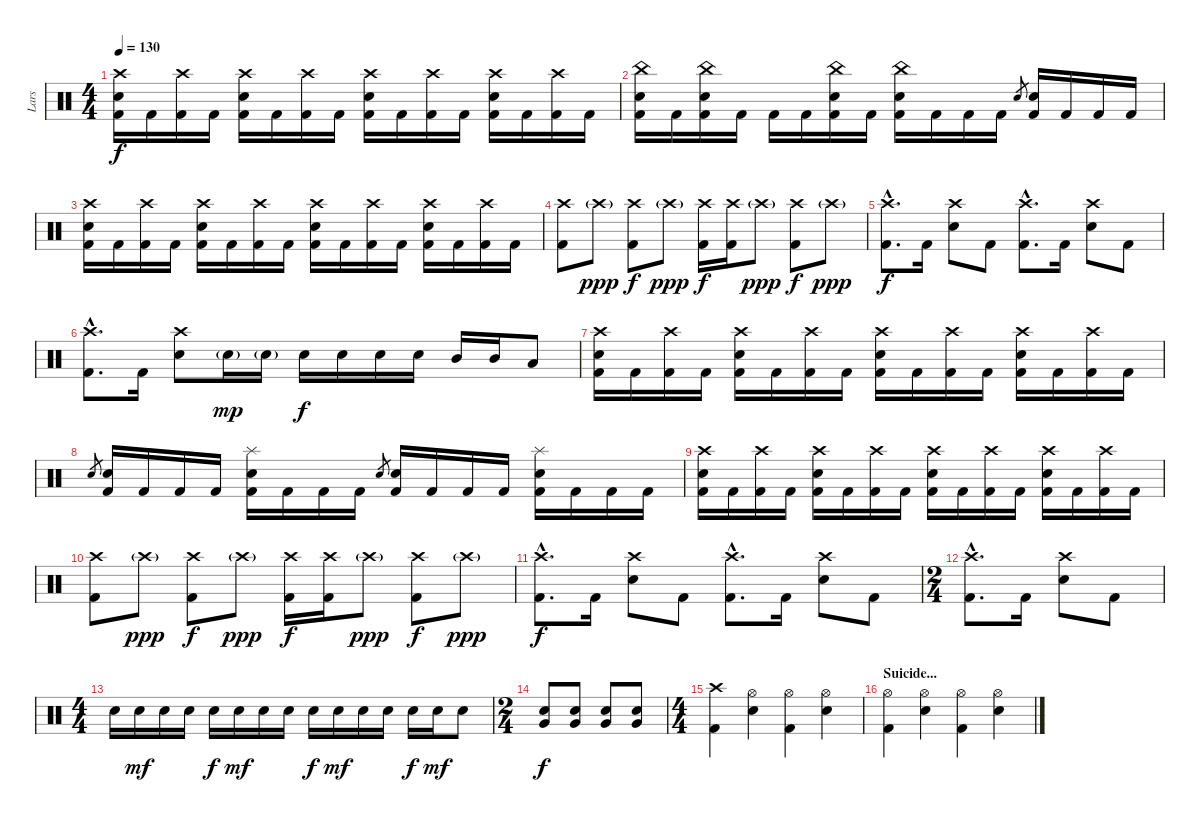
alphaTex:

\track ("Lars" "Lars") {instrument percussion}
\staff {score}
\articulation defaults
\ts (4 4)
\section ("" "")
\tempo 130
\clef neutral
\ks c
("Kick (hit) 2" "Electric Snare (hit)" "Crash high (hit)").16{dy f} "Kick (hit) 2".16 ("Kick (hit) 2" "Crash high (hit)").16 "Kick (hit) 2".16 ("Kick (hit) 2" "Electric Snare (hit)" "Crash high (hit)").16 "Kick (hit) 2".16 ("Kick (hit) 2" "Crash high (hit)").16 "Kick (hit) 2".16 ("Kick (hit) 2" "Electric Snare (hit)" "Crash high (hit)").16 "Kick (hit) 2".16 ("Kick (hit) 2" "Crash high (hit)").16 "Kick (hit) 2".16 ("Kick (hit) 2" "Electric Snare (hit)" "Crash high (hit)").16 "Kick (hit) 2".16 ("Kick (hit) 2" "Crash high (hit)").16 "Kick (hit) 2".16 |
("Kick (hit) 2" "Electric Snare (hit)" "China (hit)").16 "Kick (hit) 2".16 ("Kick (hit) 2" "Electric Snare (hit)" "China (hit)").16 "Kick (hit) 2".16 "Kick (hit) 2".16 "Kick (hit) 2".16 ("Kick (hit) 2" "Electric Snare (hit)" "China (hit)").16 "Kick (hit) 2".16 ("Kick (hit) 2" "Electric Snare (hit)" "China (hit)").16 "Kick (hit) 2".16 "Kick (hit) 2".16 "Kick (hit) 2".16 "Electric Snare (hit)".8{gr} ("Kick (hit) 2" "Electric Snare (hit)").16 "Kick (hit) 2".16 "Kick (hit) 2".16 "Kick (hit) 2".16 |
("Kick (hit) 2" "Electric Snare (hit)" "Crash high (hit)").16 "Kick (hit) 2".16 ("Kick (hit) 2" "Crash high (hit)").16 "Kick (hit) 2".16 ("Kick (hit) 2" "Electric Snare (hit)" "Crash high (hit)").16 "Kick (hit) 2".16 ("Kick (hit) 2" "Crash high (hit)").16 "Kick (hit) 2".16 ("Kick (hit) 2" "Electric Snare (hit)" "Crash high (hit)").16 "Kick (hit) 2".16 ("Kick (hit) 2" "Crash high (hit)").16 "Kick (hit) 2".16 ("Kick (hit) 2" "Electric Snare (hit)" "Crash high (hit)").16 "Kick (hit) 2".16 ("Kick (hit) 2" "Crash high (hit)").16 "Kick (hit) 2".16 |
("Kick (hit) 2" "Crash high (hit)").8 "Crash high (hit)"{g}.8{dy ppp} ("Kick (hit) 2" "Crash high (hit)").8{dy f} "Crash high (hit)"{g}.8{dy ppp} ("Kick (hit) 2" "Crash high (hit)").16{dy f} ("Kick (hit) 2" "Crash high (hit)").16 "Crash high (hit)"{g}.8{dy ppp} ("Kick (hit) 2" "Crash high (hit)").8{dy f} "Crash high (hit)"{g}.8{dy ppp} |
\section ("" "")
("Kick (hit) 2"{hac} "Crash high (hit)"{hac}).8{d dy f} "Kick (hit) 2".16 ("Electric Snare (hit)" "Crash high (hit)").8 "Kick (hit) 2".8 ("Kick (hit) 2"{hac} "Crash high (hit)"{hac}).8{d} "Kick (hit) 2".16 ("Electric Snare (hit)" "Crash high (hit)").8 "Kick (hit) 2".8 |
("Kick (hit) 2"{hac} "Crash high (hit)"{hac}).8{d} "Kick (hit) 2".16 ("Electric Snare (hit)" "Crash high (hit)").8 "Electric Snare (hit)"{g}.16{dy mp} "Electric Snare (hit)"{g}.16 "Electric Snare (hit)".16{dy f} "Electric Snare (hit)".16 "Electric Snare (hit)".16 "Electric Snare (hit)".16 "Mid Tom (hit)".16 "Mid Tom (hit)".16 "Low Tom (hit)".8 |
("Kick (hit) 2" "Electric Snare (hit)" "Crash high (hit)").16 "Kick (hit) 2".16 ("Kick (hit) 2" "Crash high (hit)").16 "Kick (hit) 2".16 ("Kick (hit) 2" "Electric Snare (hit)" "Crash high (hit)").16 "Kick (hit) 2".16 ("Kick (hit) 2" "Crash high (hit)").16 "Kick (hit) 2".16 ("Kick (hit) 2" "Electric Snare (hit)" "Crash high (hit)").16 "Kick (hit) 2".16 ("Kick (hit) 2" "Crash high (hit)").16 "Kick (hit) 2".16 ("Kick (hit) 2" "Electric Snare (hit)" "Crash high (hit)").16 "Kick (hit) 2".16 ("Kick (hit) 2" "Crash high (hit)").16 "Kick (hit) 2".16 |
"Electric Snare (hit)".8{gr} ("Kick (hit) 2" "Electric Snare (hit)").16 "Kick (hit) 2".16 "Kick (hit) 2".16 "Kick (hit) 2".16 ("Kick (hit) 2" "Electric Snare (hit)" "Splash (hit)").16 "Kick (hit) 2".16 "Kick (hit) 2".16 "Kick (hit) 2".16 "Electric Snare (hit)".8{gr} ("Kick (hit) 2" "Electric Snare (hit)").16 "Kick (hit) 2".16 "Kick (hit) 2".16 "Kick (hit) 2".16 ("Kick (hit) 2" "Electric Snare (hit)" "Splash (hit)").16 "Kick (hit) 2".16 "Kick (hit) 2".16 "Kick (hit) 2".16 |
("Kick (hit) 2" "Electric Snare (hit)" "Crash high (hit)").16 "Kick (hit) 2".16 ("Kick (hit) 2" "Crash high (hit)").16 "Kick (hit) 2".16 ("Kick (hit) 2" "Electric Snare (hit)" "Crash high (hit)").16 "Kick (hit) 2".16 ("Kick (hit) 2" "Crash high (hit)").16 "Kick (hit) 2".16 ("Kick (hit) 2" "Electric Snare (hit)" "Crash high (hit)").16 "Kick (hit) 2".16 ("Kick (hit) 2" "Crash high (hit)").16 "Kick (hit) 2".16 ("Kick (hit) 2" "Electric Snare (hit)" "Crash high (hit)").16 "Kick (hit) 2".16 ("Kick (hit) 2" "Crash high (hit)").16 "Kick (hit) 2".16 |
("Kick (hit) 2" "Crash high (hit)").8 "Crash high (hit)"{g}.8{dy ppp} ("Kick (hit) 2" "Crash high (hit)").8{dy f} "Crash high (hit)"{g}.8{dy ppp} ("Kick (hit) 2" "Crash high (hit)").16{dy f} ("Kick (hit) 2" "Crash high (hit)").16 "Crash high (hit)"{g}.8{dy ppp} ("Kick (hit) 2" "Crash high (hit)").8{dy f} "Crash high (hit)"{g}.8{dy ppp} |
\section ("" "")
("Kick (hit) 2"{hac} "Crash high (hit)"{hac}).8{d dy f} "Kick (hit) 2".16 ("Electric Snare (hit)" "Crash high (hit)").8 "Kick (hit) 2".8 ("Kick (hit) 2"{hac} "Crash high (hit)"{hac}).8{d} "Kick (hit) 2".16 ("Electric Snare (hit)" "Crash high (hit)").8 "Kick (hit) 2".8 |
\ts (2 4)
("Kick (hit) 2"{hac} "Crash high (hit)"{hac}).8{d} "Kick (hit) 2".16 ("Electric Snare (hit)" "Crash high (hit)").8 "Kick (hit) 2".8 |
\ts (4 4)
"Electric Snare (hit)".16 "Electric Snare (hit)".16{dy mf} "Electric Snare (hit)".16 "Electric Snare (hit)".16 "Electric Snare (hit)".16{dy f} "Electric Snare (hit)".16{dy mf} "Electric Snare (hit)".16 "Electric Snare (hit)".16 "Electric Snare (hit)".16{dy f} "Electric Snare (hit)".16{dy mf} "Electric Snare (hit)".16 "Electric Snare (hit)".16 "Electric Snare (hit)".16{dy f} "Electric Snare (hit)".16{dy mf} "Electric Snare (hit)".8 |
\ts (2 4)
("Electric Snare (hit)" "Very Low Tom (hit)").8{bu 120 dy f} ("Electric Snare (hit)" "Very Low Tom (hit)").8{bu 120} ("Electric Snare (hit)" "Very Low Tom (hit)").8{bu 120} ("Electric Snare (hit)" "Very Low Tom (hit)").8{bu 120} |
\ts (4 4)
("Kick (hit) 2" "Crash high (hit)").4 ("Electric Snare (hit)" "Hi-Hat (open)").4 ("Kick (hit) 2" "Hi-Hat (open)").4 ("Electric Snare (hit)" "Hi-Hat (open)").4 |
\section ("" "Suicide...")
("Kick (hit) 2" "Hi-Hat (open)").4 ("Electric Snare (hit)" "Hi-Hat (open)").4 ("Kick (hit) 2" "Hi-Hat (open)").4 ("Electric Snare (hit)" "Hi-Hat (open)").4
